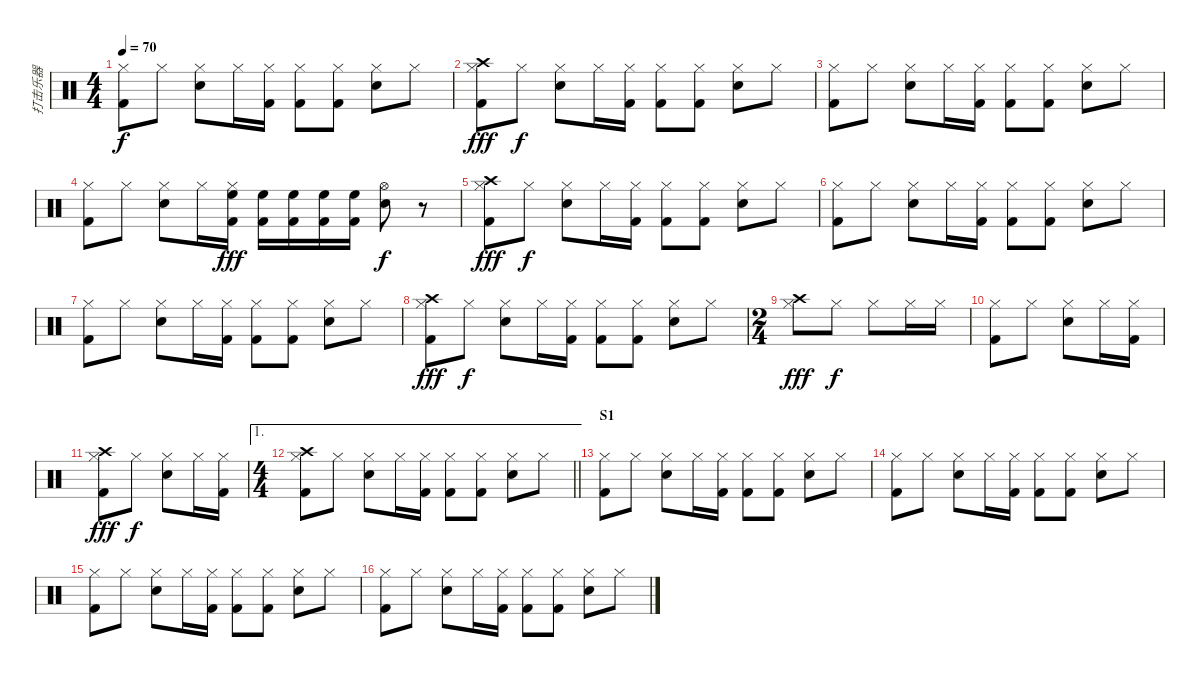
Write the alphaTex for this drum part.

\track ("打击乐器" "打击乐器") {instrument percussion}
\staff {score}
\articulation defaults
\ts (4 4)
\tempo 70
\clef neutral
\ks c
("Hi-Hat (closed)" "Kick (hit) 2").8{dy f} "Hi-Hat (closed)".8 ("Hi-Hat (closed)" "Snare (hit) 2").8 "Hi-Hat (closed)".16 ("Hi-Hat (closed)" "Kick (hit) 2").16 ("Hi-Hat (closed)" "Kick (hit) 2").8 ("Hi-Hat (closed)" "Kick (hit) 2").8 ("Hi-Hat (closed)" "Snare (hit) 2").8 "Hi-Hat (closed)".8 |
("Hi-Hat (closed)" "Crash high (hit)" "Kick (hit) 2").8{dy fff} "Hi-Hat (closed)".8{dy f} ("Hi-Hat (closed)" "Snare (hit) 2").8 "Hi-Hat (closed)".16 ("Hi-Hat (closed)" "Kick (hit) 2").16 ("Hi-Hat (closed)" "Kick (hit) 2").8 ("Hi-Hat (closed)" "Kick (hit) 2").8 ("Hi-Hat (closed)" "Snare (hit) 2").8 "Hi-Hat (closed)".8 |
("Hi-Hat (closed)" "Kick (hit) 2").8 "Hi-Hat (closed)".8 ("Hi-Hat (closed)" "Snare (hit) 2").8 "Hi-Hat (closed)".16 ("Hi-Hat (closed)" "Kick (hit) 2").16 ("Hi-Hat (closed)" "Kick (hit) 2").8 ("Hi-Hat (closed)" "Kick (hit) 2").8 ("Hi-Hat (closed)" "Snare (hit) 2").8 "Hi-Hat (closed)".8 |
("Hi-Hat (closed)" "Kick (hit) 2").8 "Hi-Hat (closed)".8 ("Hi-Hat (closed)" "Snare (hit) 2").8 "Hi-Hat (closed)".16 ("Hi-Hat (closed)" "High Floor Tom (hit)" "Kick (hit) 2").16{dy fff} ("High Floor Tom (hit)" "Kick (hit) 2").16 ("High Floor Tom (hit)" "Kick (hit) 2").16 ("High Floor Tom (hit)" "Kick (hit) 2").16 ("High Floor Tom (hit)" "Kick (hit) 2").16 ("Hi-Hat (open)" "Snare (hit) 2").8{dy f} r.8 |
("Hi-Hat (closed)" "Crash high (hit)" "Kick (hit) 2").8{dy fff} "Hi-Hat (closed)".8{dy f} ("Hi-Hat (closed)" "Snare (hit) 2").8 "Hi-Hat (closed)".16 ("Hi-Hat (closed)" "Kick (hit) 2").16 ("Hi-Hat (closed)" "Kick (hit) 2").8 ("Hi-Hat (closed)" "Kick (hit) 2").8 ("Hi-Hat (closed)" "Snare (hit) 2").8 "Hi-Hat (closed)".8 |
("Hi-Hat (closed)" "Kick (hit) 2").8 "Hi-Hat (closed)".8 ("Hi-Hat (closed)" "Snare (hit) 2").8 "Hi-Hat (closed)".16 ("Hi-Hat (closed)" "Kick (hit) 2").16 ("Hi-Hat (closed)" "Kick (hit) 2").8 ("Hi-Hat (closed)" "Kick (hit) 2").8 ("Hi-Hat (closed)" "Snare (hit) 2").8 "Hi-Hat (closed)".8 |
("Hi-Hat (closed)" "Kick (hit) 2").8 "Hi-Hat (closed)".8 ("Hi-Hat (closed)" "Snare (hit) 2").8 "Hi-Hat (closed)".16 ("Hi-Hat (closed)" "Kick (hit) 2").16 ("Hi-Hat (closed)" "Kick (hit) 2").8 ("Hi-Hat (closed)" "Kick (hit) 2").8 ("Hi-Hat (closed)" "Snare (hit) 2").8 "Hi-Hat (closed)".8 |
("Hi-Hat (closed)" "Crash high (hit)" "Kick (hit) 2").8{dy fff} "Hi-Hat (closed)".8{dy f} ("Hi-Hat (closed)" "Snare (hit) 2").8 "Hi-Hat (closed)".16 ("Hi-Hat (closed)" "Kick (hit) 2").16 ("Hi-Hat (closed)" "Kick (hit) 2").8 ("Hi-Hat (closed)" "Kick (hit) 2").8 ("Hi-Hat (closed)" "Snare (hit) 2").8 "Hi-Hat (closed)".8 |
\ts (2 4)
("Hi-Hat (closed)" "Crash high (hit)").8{dy fff} "Hi-Hat (closed)".8{dy f} "Hi-Hat (closed)".8 "Hi-Hat (closed)".16 "Hi-Hat (closed)".16 |
("Hi-Hat (closed)" "Kick (hit) 2").8 "Hi-Hat (closed)".8 ("Hi-Hat (closed)" "Snare (hit) 2").8 "Hi-Hat (closed)".16 ("Hi-Hat (closed)" "Kick (hit) 2").16 |
("Hi-Hat (closed)" "Crash high (hit)" "Kick (hit) 2").8{dy fff} "Hi-Hat (closed)".8{dy f} ("Hi-Hat (closed)" "Snare (hit) 2").8 "Hi-Hat (closed)".16 ("Hi-Hat (closed)" "Kick (hit) 2").16 |
\ae 1
\ts (4 4)
\barLineRight lightlight
("Hi-Hat (closed)" "Crash high (hit)" "Kick (hit) 2").8 "Hi-Hat (closed)".8 ("Hi-Hat (closed)" "Snare (hit) 2").8 "Hi-Hat (closed)".16 ("Hi-Hat (closed)" "Kick (hit) 2").16 ("Hi-Hat (closed)" "Kick (hit) 2").8 ("Hi-Hat (closed)" "Kick (hit) 2").8 ("Hi-Hat (closed)" "Snare (hit) 2").8 "Hi-Hat (closed)".8 |
\section ("" "S1")
("Hi-Hat (closed)" "Kick (hit) 2").8 "Hi-Hat (closed)".8 ("Hi-Hat (closed)" "Snare (hit) 2").8 "Hi-Hat (closed)".16 ("Hi-Hat (closed)" "Kick (hit) 2").16 ("Hi-Hat (closed)" "Kick (hit) 2").8 ("Hi-Hat (closed)" "Kick (hit) 2").8 ("Hi-Hat (closed)" "Snare (hit) 2").8 "Hi-Hat (closed)".8 |
("Hi-Hat (closed)" "Kick (hit) 2").8 "Hi-Hat (closed)".8 ("Hi-Hat (closed)" "Snare (hit) 2").8 "Hi-Hat (closed)".16 ("Hi-Hat (closed)" "Kick (hit) 2").16 ("Hi-Hat (closed)" "Kick (hit) 2").8 ("Hi-Hat (closed)" "Kick (hit) 2").8 ("Hi-Hat (closed)" "Snare (hit) 2").8 "Hi-Hat (closed)".8 |
("Hi-Hat (closed)" "Kick (hit) 2").8 "Hi-Hat (closed)".8 ("Hi-Hat (closed)" "Snare (hit) 2").8 "Hi-Hat (closed)".16 ("Hi-Hat (closed)" "Kick (hit) 2").16 ("Hi-Hat (closed)" "Kick (hit) 2").8 ("Hi-Hat (closed)" "Kick (hit) 2").8 ("Hi-Hat (closed)" "Snare (hit) 2").8 "Hi-Hat (closed)".8 |
("Hi-Hat (closed)" "Kick (hit) 2").8 "Hi-Hat (closed)".8 ("Hi-Hat (closed)" "Snare (hit) 2").8 "Hi-Hat (closed)".16 ("Hi-Hat (closed)" "Kick (hit) 2").16 ("Hi-Hat (closed)" "Kick (hit) 2").8 ("Hi-Hat (closed)" "Kick (hit) 2").8 ("Hi-Hat (closed)" "Snare (hit) 2").8 "Hi-Hat (closed)".8
